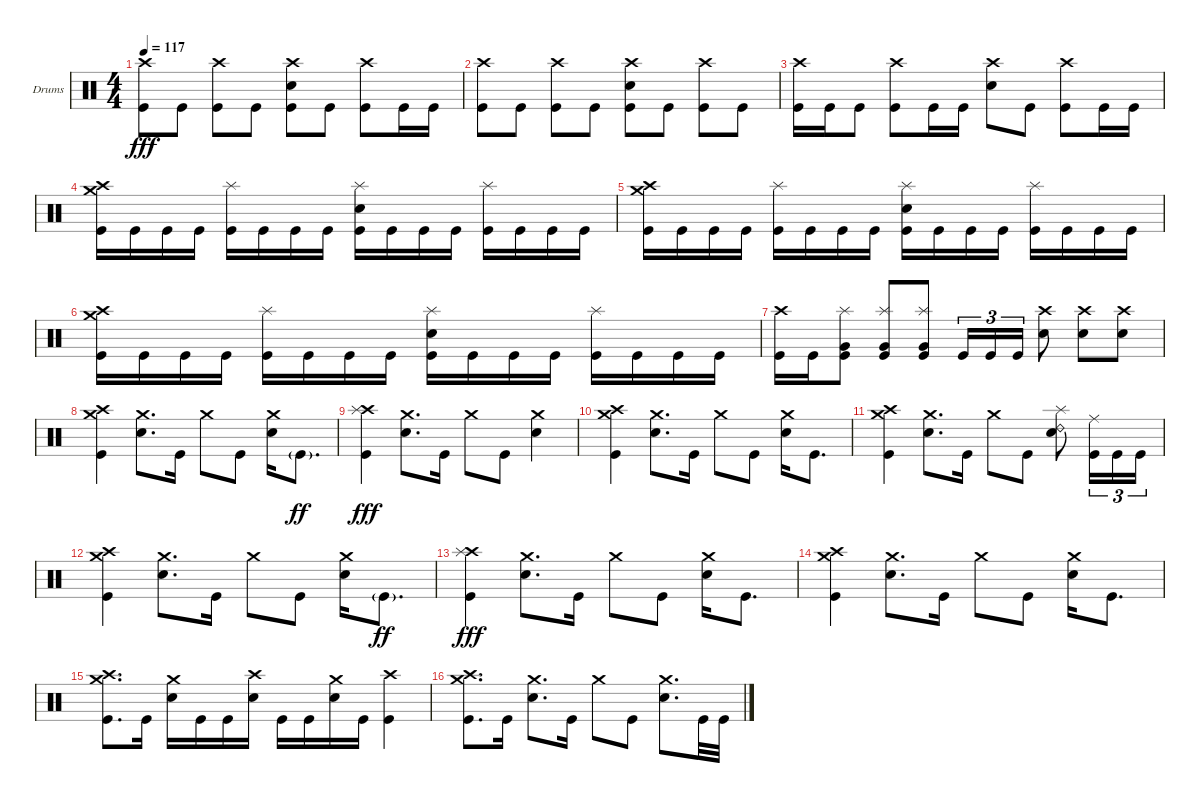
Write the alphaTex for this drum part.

\defaultSystemsLayout 4
\bracketExtendMode groupsimilarinstruments
\firstSystemTrackNameOrientation horizontal
\otherSystemsTrackNameOrientation horizontal
\track ("Drumkit" "Drums") {instrument percussion}
\staff {score}
\articulation defaults
\ts (4 4)
\tempo 117
\clef neutral
\ks c
("Crash high (hit)" "Kick (hit)").8{dy fff} "Kick (hit)".8 ("Crash high (hit)" "Kick (hit)").8 "Kick (hit)".8 ("Crash high (hit)" "Snare (hit) 2" "Kick (hit)").8 "Kick (hit)".8 ("Crash high (hit)" "Kick (hit)").8 "Kick (hit)".16 "Kick (hit)".16 |
("Crash high (hit)" "Kick (hit)").8 "Kick (hit)".8 ("Crash high (hit)" "Kick (hit)").8 "Kick (hit)".8 ("Crash high (hit)" "Snare (hit) 2" "Kick (hit)").8 "Kick (hit)".8 ("Crash high (hit)" "Kick (hit)").8 "Kick (hit)".8 |
("Crash high (hit)" "Kick (hit)").16 "Kick (hit)".16 "Kick (hit)".8 ("Crash high (hit)" "Kick (hit)").8 "Kick (hit)".16 "Kick (hit)".16 ("Crash high (hit)" "Snare (hit) 2").8 "Kick (hit)".8 ("Crash high (hit)" "Kick (hit)").8 "Kick (hit)".16 "Kick (hit)".16 |
("Crash high (hit)" "Crash medium (hit)" "Kick (hit)").16 "Kick (hit)".16 "Kick (hit)".16 "Kick (hit)".16 ("Splash (hit)" "Kick (hit)").16 "Kick (hit)".16 "Kick (hit)".16 "Kick (hit)".16 ("Splash (hit)" "Snare (hit) 2" "Kick (hit)").16 "Kick (hit)".16 "Kick (hit)".16 "Kick (hit)".16 ("Splash (hit)" "Kick (hit)").16 "Kick (hit)".16 "Kick (hit)".16 "Kick (hit)".16 |
("Crash high (hit)" "Crash medium (hit)" "Kick (hit)").16 "Kick (hit)".16 "Kick (hit)".16 "Kick (hit)".16 ("Splash (hit)" "Kick (hit)").16 "Kick (hit)".16 "Kick (hit)".16 "Kick (hit)".16 ("Splash (hit)" "Snare (hit) 2" "Kick (hit)").16 "Kick (hit)".16 "Kick (hit)".16 "Kick (hit)".16 ("Splash (hit)" "Kick (hit)").16 "Kick (hit)".16 "Kick (hit)".16 "Kick (hit)".16 |
("Crash high (hit)" "Crash medium (hit)" "Kick (hit)").16 "Kick (hit)".16 "Kick (hit)".16 "Kick (hit)".16 ("Splash (hit)" "Kick (hit)").16 "Kick (hit)".16 "Kick (hit)".16 "Kick (hit)".16 ("Splash (hit)" "Snare (hit) 2" "Kick (hit)").16 "Kick (hit)".16 "Kick (hit)".16 "Kick (hit)".16 ("Splash (hit)" "Kick (hit)").16 "Kick (hit)".16 "Kick (hit)".16 "Kick (hit)".16 |
("Crash high (hit)" "Kick (hit)").16 "Kick (hit)".16 ("Splash (hit)" "Very Low Tom (hit)" "Kick (hit)").8 ("Splash (hit)" "Very Low Tom (hit)" "Kick (hit)").8 ("Splash (hit)" "Very Low Tom (hit)" "Kick (hit)").8 "Kick (hit)".16{tu (3 2)} "Kick (hit)".16{tu (3 2)} "Kick (hit)".16{tu (3 2)} ("Crash high (hit)" "Snare (hit) 2").8 ("Crash high (hit)" "Snare (hit) 2").8 ("Crash high (hit)" "Snare (hit) 2").8 |
("Crash high (hit)" "Crash medium (hit)" "Kick (hit)").4 ("Crash medium (hit)" "Snare (hit) 2").8{d} "Kick (hit)".16 "Crash medium (hit)".8 "Kick (hit)".8 ("Crash medium (hit)" "Snare (hit) 2").16 "Kick (hit)"{g}.8{d dy ff} |
("Crash high (hit)" "Splash (hit)" "Kick (hit)").4{dy fff} ("Crash medium (hit)" "Snare (hit) 2").8{d} "Kick (hit)".16 "Crash medium (hit)".8 "Kick (hit)".8 ("Crash medium (hit)" "Snare (hit) 2").4 |
("Crash high (hit)" "Crash medium (hit)" "Kick (hit)").4 ("Crash medium (hit)" "Snare (hit) 2").8{d} "Kick (hit)".16 "Crash medium (hit)".8 "Kick (hit)".8 ("Crash medium (hit)" "Snare (hit) 2").16 "Kick (hit)".8{d} |
("Crash high (hit)" "Crash medium (hit)" "Kick (hit)").4 ("Crash medium (hit)" "Snare (hit) 2").8{d} "Kick (hit)".16 "Crash medium (hit)".8 "Kick (hit)".8 ("Ride (bell) 2" "Splash (hit)" "Snare (hit) 2").8 ("Ride (middle)" "Kick (hit)").16{tu (3 2)} "Kick (hit)".16{tu (3 2)} "Kick (hit)".16{tu (3 2)} |
("Crash high (hit)" "Crash medium (hit)" "Kick (hit)").4 ("Crash medium (hit)" "Snare (hit) 2").8{d} "Kick (hit)".16 "Crash medium (hit)".8 "Kick (hit)".8 ("Crash medium (hit)" "Snare (hit) 2").16 "Kick (hit)"{g}.8{d dy ff} |
("Crash high (hit)" "Splash (hit)" "Kick (hit)").4{dy fff} ("Crash medium (hit)" "Snare (hit) 2").8{d} "Kick (hit)".16 "Crash medium (hit)".8 "Kick (hit)".8 ("Crash medium (hit)" "Snare (hit) 2").16 "Kick (hit)".8{d} |
("Crash high (hit)" "Crash medium (hit)" "Kick (hit)").4 ("Crash medium (hit)" "Snare (hit) 2").8{d} "Kick (hit)".16 "Crash medium (hit)".8 "Kick (hit)".8 ("Crash medium (hit)" "Snare (hit) 2").16 "Kick (hit)".8{d} |
("Crash high (hit)" "Crash medium (hit)" "Kick (hit)").8{d} "Kick (hit)".16 ("Crash medium (hit)" "Snare (hit) 2").16 "Kick (hit)".16 "Kick (hit)".16 ("Crash high (hit)" "Snare (hit) 2").16 "Kick (hit)".16 "Kick (hit)".16 ("Crash medium (hit)" "Snare (hit) 2").16 "Kick (hit)".16 ("Crash high (hit)" "Kick (hit)").4 |
("Crash high (hit)" "Crash medium (hit)" "Kick (hit)").8{d} "Kick (hit)".16 ("Crash medium (hit)" "Snare (hit) 2").8{d} "Kick (hit)".16 "Crash medium (hit)".8 "Kick (hit)".8 ("Crash medium (hit)" "Snare (hit) 2").8{d} "Kick (hit)".32 "Kick (hit)".32
